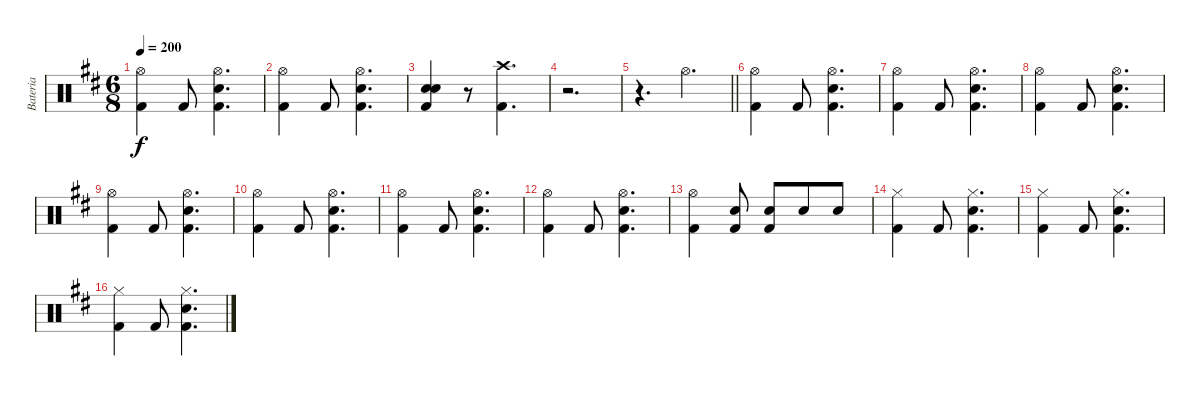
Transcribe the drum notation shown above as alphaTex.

\track ("Bateria" "Bateria") {instrument percussion}
\staff {score}
\articulation defaults
\ts (6 8)
\tempo 200
\clef neutral
\ks bminor
("Hi-Hat (open)" "Kick (hit) 2").4{dy f} "Kick (hit) 2".8 ("Hi-Hat (open)" "Electric Snare (hit)" "Kick (hit) 2").4{d} |
("Hi-Hat (open)" "Kick (hit) 2").4 "Kick (hit) 2".8 ("Hi-Hat (open)" "Electric Snare (hit)" "Kick (hit) 2").4{d} |
("Electric Snare (hit)" "Electric Snare (hit)" "Kick (hit) 2").4 r.8 ("Crash high (hit)" "Kick (hit) 2").4{d} |
r.2{d} |
\barLineRight lightlight
r.4{d} "Hi-Hat (open)".4{d} |
("Hi-Hat (open)" "Kick (hit) 2").4 "Kick (hit) 2".8 ("Hi-Hat (open)" "Electric Snare (hit)" "Kick (hit) 2").4{d} |
("Hi-Hat (open)" "Kick (hit) 2").4 "Kick (hit) 2".8 ("Hi-Hat (open)" "Electric Snare (hit)" "Kick (hit) 2").4{d} |
("Hi-Hat (open)" "Kick (hit) 2").4 "Kick (hit) 2".8 ("Hi-Hat (open)" "Electric Snare (hit)" "Kick (hit) 2").4{d} |
("Hi-Hat (open)" "Kick (hit) 2").4 "Kick (hit) 2".8 ("Hi-Hat (open)" "Electric Snare (hit)" "Kick (hit) 2").4{d} |
("Hi-Hat (open)" "Kick (hit) 2").4 "Kick (hit) 2".8 ("Hi-Hat (open)" "Electric Snare (hit)" "Kick (hit) 2").4{d} |
("Hi-Hat (open)" "Kick (hit) 2").4 "Kick (hit) 2".8 ("Hi-Hat (open)" "Electric Snare (hit)" "Kick (hit) 2").4{d} |
("Hi-Hat (open)" "Kick (hit) 2").4 "Kick (hit) 2".8 ("Hi-Hat (open)" "Electric Snare (hit)" "Kick (hit) 2").4{d} |
("Hi-Hat (open)" "Kick (hit) 2").4 ("Electric Snare (hit)" "Kick (hit) 2").8 ("Electric Snare (hit)" "Kick (hit) 2").8 "Electric Snare (hit)".8 "Electric Snare (hit)".8 |
("Hi-Hat (closed)" "Kick (hit) 2").4 "Kick (hit) 2".8 ("Hi-Hat (closed)" "Electric Snare (hit)" "Kick (hit) 2").4{d} |
("Hi-Hat (closed)" "Kick (hit) 2").4 "Kick (hit) 2".8 ("Hi-Hat (closed)" "Electric Snare (hit)" "Kick (hit) 2").4{d} |
("Hi-Hat (closed)" "Kick (hit) 2").4 "Kick (hit) 2".8 ("Hi-Hat (closed)" "Electric Snare (hit)" "Kick (hit) 2").4{d}
